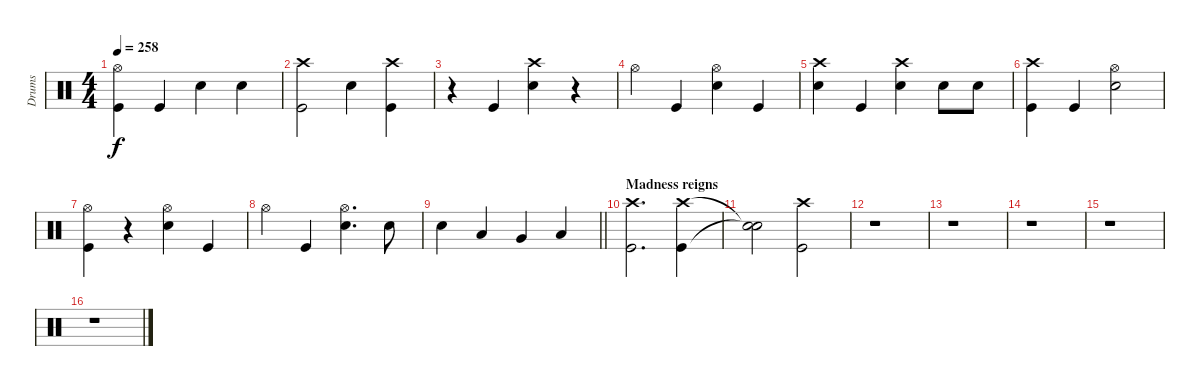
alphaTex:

\track ("Drums" "Drums") {instrument percussion}
\staff {score}
\articulation defaults
\ts (4 4)
\tempo 258
\clef neutral
\ks c
("Hi-Hat (open)" "Kick (hit)").4{dy f} "Kick (hit)".4 "Electric Snare (hit)".4 "Electric Snare (hit)".4 |
("Crash high (hit)" "Kick (hit)").2 "Electric Snare (hit)".4 ("Crash high (hit)" "Kick (hit)").4 |
r.4 "Kick (hit)".4 ("Crash high (hit)" "Electric Snare (hit)").4 r.4 |
"Hi-Hat (open)".4 "Kick (hit)".4 ("Hi-Hat (open)" "Electric Snare (hit)").4 "Kick (hit)".4 |
("Crash high (hit)" "Electric Snare (hit)").4 "Kick (hit)".4 ("Crash high (hit)" "Electric Snare (hit)").4 "Electric Snare (hit)".8 "Electric Snare (hit)".8 |
("Crash high (hit)" "Kick (hit)").4 "Kick (hit)".4 ("Hi-Hat (open)" "Electric Snare (hit)").2 |
("Hi-Hat (open)" "Kick (hit)").4 r.4 ("Hi-Hat (open)" "Electric Snare (hit)").4 "Kick (hit)".4 |
"Hi-Hat (open)".4 "Kick (hit)".4 ("Hi-Hat (open)" "Electric Snare (hit)").4{d} "Electric Snare (hit)".8 |
\barLineRight lightlight "Electric Snare (hit)".4 "Low Tom (hit)".4 "Very Low Tom (hit)".4 "Low Floor Tom (hit)".4
|
\section ("" "Madness reigns")
("Crash high (hit)" "Kick (hit)").2{d} ("Crash high (hit)" "Kick (hit)").4 |
("Snare (hit)"{t} "Snare (hit)"{t}).2 ("Crash high (hit)" "Kick (hit)").2 |
r.1 |
r.1 |
r.1 |
r.1 |
r.1
